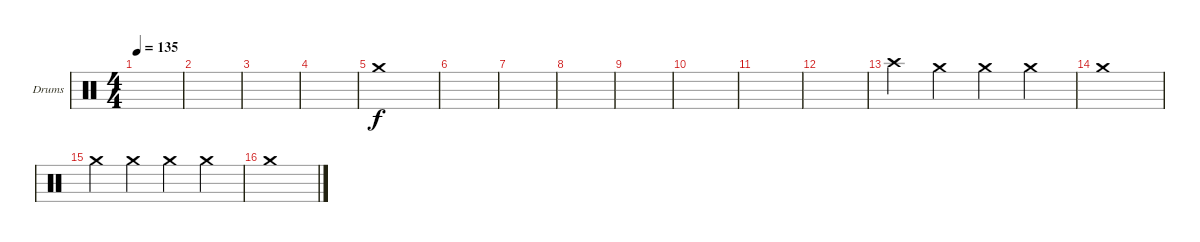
\defaultSystemsLayout 4
\bracketExtendMode groupsimilarinstruments
\firstSystemTrackNameOrientation horizontal
\otherSystemsTrackNameOrientation horizontal
\track ("Helders" "Drums") {instrument percussion}
\staff {score}
\articulation defaults
\ts (4 4)
\tempo 135
\clef neutral
\ks c
|
|
|
|
"Crash medium (hit)".1 |
|
|
|
|
|
|
|
"Crash high (hit)".4 "Crash medium (hit)".4 "Crash medium (hit)".4 "Crash medium (hit)".4 |
"Crash medium (hit)".1 |
"Crash medium (hit)".4 "Crash medium (hit)".4 "Crash medium (hit)".4 "Crash medium (hit)".4 |
"Crash medium (hit)".1
